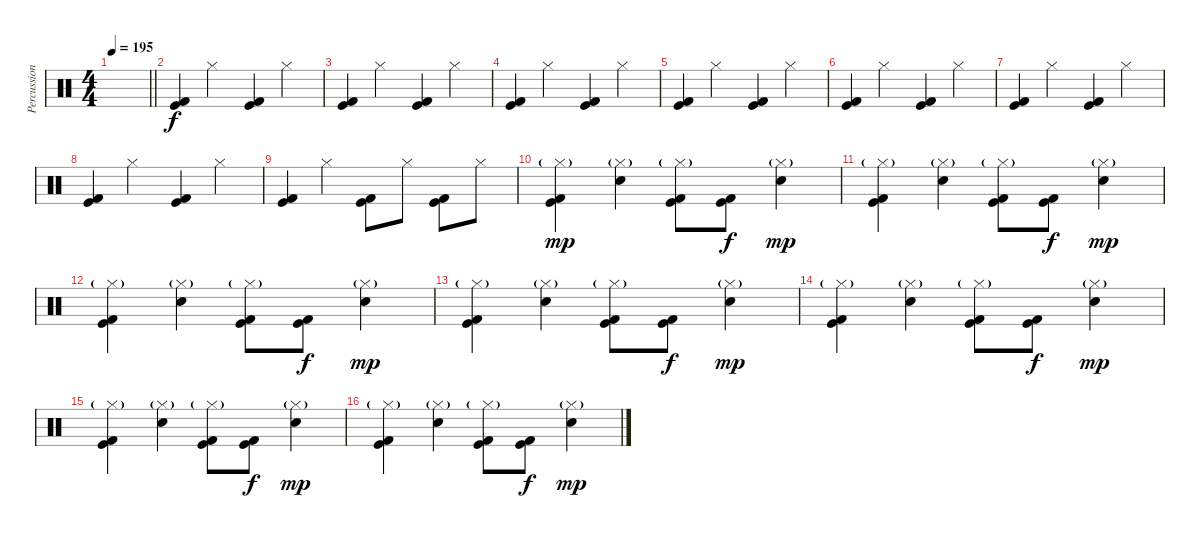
\track ("Percussion" "Percussion") {instrument percussion}
\staff {score}
\articulation defaults
\ts (4 4)
\tempo 195
\clef neutral
\barLineRight lightlight
\ks c
|
("Kick (hit)" "Kick (hit) 2").4 "Hi-Hat (closed)".4 ("Kick (hit)" "Kick (hit) 2").4 "Hi-Hat (closed)".4 |
("Kick (hit)" "Kick (hit) 2").4 "Hi-Hat (closed)".4 ("Kick (hit)" "Kick (hit) 2").4 "Hi-Hat (closed)".4 |
("Kick (hit)" "Kick (hit) 2").4 "Hi-Hat (closed)".4 ("Kick (hit)" "Kick (hit) 2").4 "Hi-Hat (closed)".4 |
("Kick (hit)" "Kick (hit) 2").4 "Hi-Hat (closed)".4 ("Kick (hit)" "Kick (hit) 2").4 "Hi-Hat (closed)".4 |
("Kick (hit)" "Kick (hit) 2").4 "Hi-Hat (closed)".4 ("Kick (hit)" "Kick (hit) 2").4 "Hi-Hat (closed)".4 |
("Kick (hit)" "Kick (hit) 2").4 "Hi-Hat (closed)".4 ("Kick (hit)" "Kick (hit) 2").4 "Hi-Hat (closed)".4 |
("Kick (hit)" "Kick (hit) 2").4 "Hi-Hat (closed)".4 ("Kick (hit)" "Kick (hit) 2").4 "Hi-Hat (closed)".4 |
("Kick (hit)" "Kick (hit) 2").4 "Hi-Hat (closed)".4 ("Kick (hit)" "Kick (hit) 2").8 "Hi-Hat (closed)".8 ("Kick (hit)" "Kick (hit) 2").8 "Hi-Hat (closed)".8 |
("Hi-Hat (closed)"{g} "Kick (hit) 2" "Kick (hit)").4{dy mp} ("Hi-Hat (closed)"{g} "Snare (hit) 2").4 ("Hi-Hat (closed)"{g} "Kick (hit) 2" "Kick (hit)").8 ("Kick (hit) 2" "Kick (hit)").8{dy f} ("Hi-Hat (closed)"{g} "Snare (hit) 2").4{dy mp} |
("Hi-Hat (closed)"{g} "Kick (hit) 2" "Kick (hit)").4 ("Hi-Hat (closed)"{g} "Snare (hit) 2").4 ("Hi-Hat (closed)"{g} "Kick (hit) 2" "Kick (hit)").8 ("Kick (hit) 2" "Kick (hit)").8{dy f} ("Hi-Hat (closed)"{g} "Snare (hit) 2").4{dy mp} |
("Hi-Hat (closed)"{g} "Kick (hit) 2" "Kick (hit)").4 ("Hi-Hat (closed)"{g} "Snare (hit) 2").4 ("Hi-Hat (closed)"{g} "Kick (hit) 2" "Kick (hit)").8 ("Kick (hit) 2" "Kick (hit)").8{dy f} ("Hi-Hat (closed)"{g} "Snare (hit) 2").4{dy mp} |
("Hi-Hat (closed)"{g} "Kick (hit) 2" "Kick (hit)").4 ("Hi-Hat (closed)"{g} "Snare (hit) 2").4 ("Hi-Hat (closed)"{g} "Kick (hit) 2" "Kick (hit)").8 ("Kick (hit) 2" "Kick (hit)").8{dy f} ("Hi-Hat (closed)"{g} "Snare (hit) 2").4{dy mp} |
("Hi-Hat (closed)"{g} "Kick (hit) 2" "Kick (hit)").4 ("Hi-Hat (closed)"{g} "Snare (hit) 2").4 ("Hi-Hat (closed)"{g} "Kick (hit) 2" "Kick (hit)").8 ("Kick (hit) 2" "Kick (hit)").8{dy f} ("Hi-Hat (closed)"{g} "Snare (hit) 2").4{dy mp} |
("Hi-Hat (closed)"{g} "Kick (hit) 2" "Kick (hit)").4 ("Hi-Hat (closed)"{g} "Snare (hit) 2").4 ("Hi-Hat (closed)"{g} "Kick (hit) 2" "Kick (hit)").8 ("Kick (hit) 2" "Kick (hit)").8{dy f} ("Hi-Hat (closed)"{g} "Snare (hit) 2").4{dy mp} |
("Hi-Hat (closed)"{g} "Kick (hit) 2" "Kick (hit)").4 ("Hi-Hat (closed)"{g} "Snare (hit) 2").4 ("Hi-Hat (closed)"{g} "Kick (hit) 2" "Kick (hit)").8 ("Kick (hit) 2" "Kick (hit)").8{dy f} ("Hi-Hat (closed)"{g} "Snare (hit) 2").4{dy mp}
